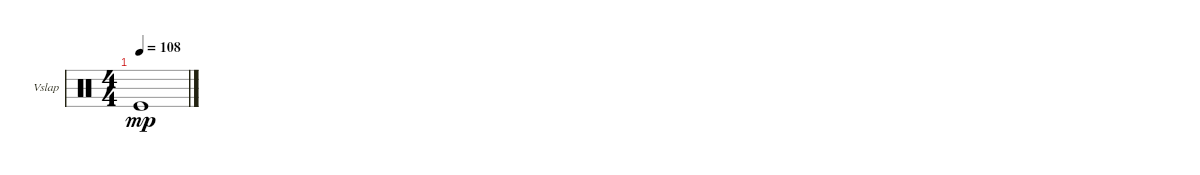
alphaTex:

\defaultSystemsLayout 4
\bracketExtendMode groupsimilarinstruments
\firstSystemTrackNameOrientation horizontal
\otherSystemsTrackNameOrientation horizontal
\track ("Vibraslap" "Vslap") {instrument percussion}
\staff {score}
\articulation defaults
\ts (4 4)
\tempo 108
\clef neutral
\scale
0.333333
\ks c "Kick (hit)".1{dy mp}
|
\scale
0.333333 |
\scale
0.333333 |
\scale
0.333333 |
\scale
0.333333 |
\scale
0.333333 |
\scale
0.333333 |
\scale
0.333333 |
\scale
0.333333
